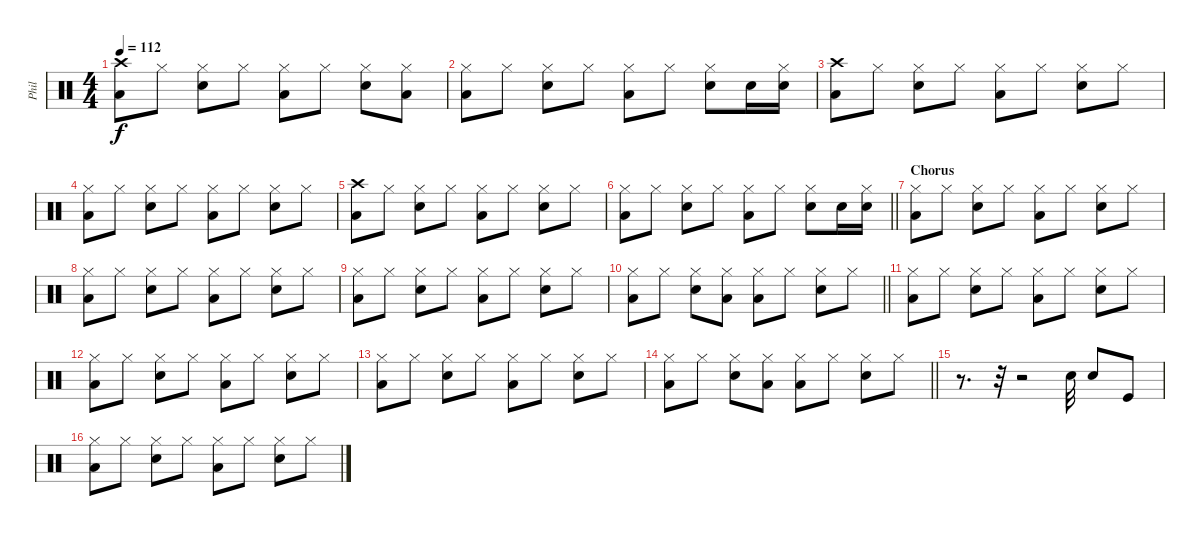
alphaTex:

\track ("Phil" "Phil") {instrument percussion}
\staff {score}
\articulation defaults
\ts (4 4)
\tempo 112
\clef neutral
\ks c
("Crash high (hit)" "Low Floor Tom (hit)").8{dy f} "Hi-Hat (closed)".8 ("Hi-Hat (closed)" "Snare (hit) 2").8 "Hi-Hat (closed)".8 ("Hi-Hat (closed)" "Low Floor Tom (hit)").8 "Hi-Hat (closed)".8 ("Hi-Hat (closed)" "Snare (hit) 2").8 ("Hi-Hat (closed)" "Low Floor Tom (hit)").8 |
("Hi-Hat (closed)" "Low Floor Tom (hit)").8 "Hi-Hat (closed)".8 ("Hi-Hat (closed)" "Snare (hit) 2").8 "Hi-Hat (closed)".8 ("Hi-Hat (closed)" "Low Floor Tom (hit)").8 "Hi-Hat (closed)".8 ("Hi-Hat (closed)" "Snare (hit) 2").8 "Snare (hit) 2".16 ("Hi-Hat (closed)" "Snare (hit) 2").16 |
("Crash high (hit)" "Low Floor Tom (hit)").8 "Hi-Hat (closed)".8 ("Hi-Hat (closed)" "Snare (hit) 2").8 "Hi-Hat (closed)".8 ("Hi-Hat (closed)" "Low Floor Tom (hit)").8 "Hi-Hat (closed)".8 ("Hi-Hat (closed)" "Snare (hit) 2").8 "Hi-Hat (closed)".8 |
("Hi-Hat (closed)" "Low Floor Tom (hit)").8 "Hi-Hat (closed)".8 ("Hi-Hat (closed)" "Snare (hit) 2").8 "Hi-Hat (closed)".8 ("Hi-Hat (closed)" "Low Floor Tom (hit)").8 "Hi-Hat (closed)".8 ("Hi-Hat (closed)" "Snare (hit) 2").8 "Hi-Hat (closed)".8 |
("Crash high (hit)" "Low Floor Tom (hit)").8 "Hi-Hat (closed)".8 ("Hi-Hat (closed)" "Snare (hit) 2").8 "Hi-Hat (closed)".8 ("Hi-Hat (closed)" "Low Floor Tom (hit)").8 "Hi-Hat (closed)".8 ("Hi-Hat (closed)" "Snare (hit) 2").8 "Hi-Hat (closed)".8 |
\barLineRight lightlight
("Hi-Hat (closed)" "Low Floor Tom (hit)").8 "Hi-Hat (closed)".8 ("Hi-Hat (closed)" "Snare (hit) 2").8 "Hi-Hat (closed)".8 ("Hi-Hat (closed)" "Low Floor Tom (hit)").8 "Hi-Hat (closed)".8 ("Hi-Hat (closed)" "Snare (hit) 2").8 "Snare (hit) 2".16 ("Hi-Hat (closed)" "Snare (hit) 2").16 |
\section ("" "Chorus")
("Hi-Hat (closed)" "Low Floor Tom (hit)").8 "Hi-Hat (closed)".8 ("Hi-Hat (closed)" "Snare (hit) 2").8 "Hi-Hat (closed)".8 ("Hi-Hat (closed)" "Low Floor Tom (hit)").8 "Hi-Hat (closed)".8 ("Hi-Hat (closed)" "Snare (hit) 2").8 "Hi-Hat (closed)".8 |
("Hi-Hat (closed)" "Low Floor Tom (hit)").8 "Hi-Hat (closed)".8 ("Hi-Hat (closed)" "Snare (hit) 2").8 "Hi-Hat (closed)".8 ("Hi-Hat (closed)" "Low Floor Tom (hit)").8 "Hi-Hat (closed)".8 ("Hi-Hat (closed)" "Snare (hit) 2").8 "Hi-Hat (closed)".8 |
("Hi-Hat (closed)" "Low Floor Tom (hit)").8 "Hi-Hat (closed)".8 ("Hi-Hat (closed)" "Snare (hit) 2").8 "Hi-Hat (closed)".8 ("Hi-Hat (closed)" "Low Floor Tom (hit)").8 "Hi-Hat (closed)".8 ("Hi-Hat (closed)" "Snare (hit) 2").8 "Hi-Hat (closed)".8 |
\barLineRight lightlight
("Hi-Hat (closed)" "Low Floor Tom (hit)").8 "Hi-Hat (closed)".8 ("Hi-Hat (closed)" "Snare (hit) 2").8 ("Hi-Hat (closed)" "Low Floor Tom (hit)").8 ("Hi-Hat (closed)" "Low Floor Tom (hit)").8 "Hi-Hat (closed)".8 ("Hi-Hat (closed)" "Snare (hit) 2").8 "Hi-Hat (closed)".8 |
("Hi-Hat (closed)" "Low Floor Tom (hit)").8 "Hi-Hat (closed)".8 ("Hi-Hat (closed)" "Snare (hit) 2").8 "Hi-Hat (closed)".8 ("Hi-Hat (closed)" "Low Floor Tom (hit)").8 "Hi-Hat (closed)".8 ("Hi-Hat (closed)" "Snare (hit) 2").8 "Hi-Hat (closed)".8 |
("Hi-Hat (closed)" "Low Floor Tom (hit)").8 "Hi-Hat (closed)".8 ("Hi-Hat (closed)" "Snare (hit) 2").8 "Hi-Hat (closed)".8 ("Hi-Hat (closed)" "Low Floor Tom (hit)").8 "Hi-Hat (closed)".8 ("Hi-Hat (closed)" "Snare (hit) 2").8 "Hi-Hat (closed)".8 |
("Hi-Hat (closed)" "Low Floor Tom (hit)").8 "Hi-Hat (closed)".8 ("Hi-Hat (closed)" "Snare (hit) 2").8 "Hi-Hat (closed)".8 ("Hi-Hat (closed)" "Low Floor Tom (hit)").8 "Hi-Hat (closed)".8 ("Hi-Hat (closed)" "Snare (hit) 2").8 "Hi-Hat (closed)".8 |
\barLineRight lightlight
("Hi-Hat (closed)" "Low Floor Tom (hit)").8 "Hi-Hat (closed)".8 ("Hi-Hat (closed)" "Snare (hit) 2").8 ("Hi-Hat (closed)" "Low Floor Tom (hit)").8 ("Hi-Hat (closed)" "Low Floor Tom (hit)").8 "Hi-Hat (closed)".8 ("Hi-Hat (closed)" "Snare (hit) 2").8 "Hi-Hat (closed)".8 |
r.8{d} r.32 r.2 "Snare (hit) 2".32 "Snare (hit) 2".8 "Kick (hit)".8 |
("Hi-Hat (closed)" "Low Floor Tom (hit)").8 "Hi-Hat (closed)".8 ("Hi-Hat (closed)" "Snare (hit) 2").8 "Hi-Hat (closed)".8 ("Hi-Hat (closed)" "Low Floor Tom (hit)").8 "Hi-Hat (closed)".8 ("Hi-Hat (closed)" "Snare (hit) 2").8 "Hi-Hat (closed)".8
